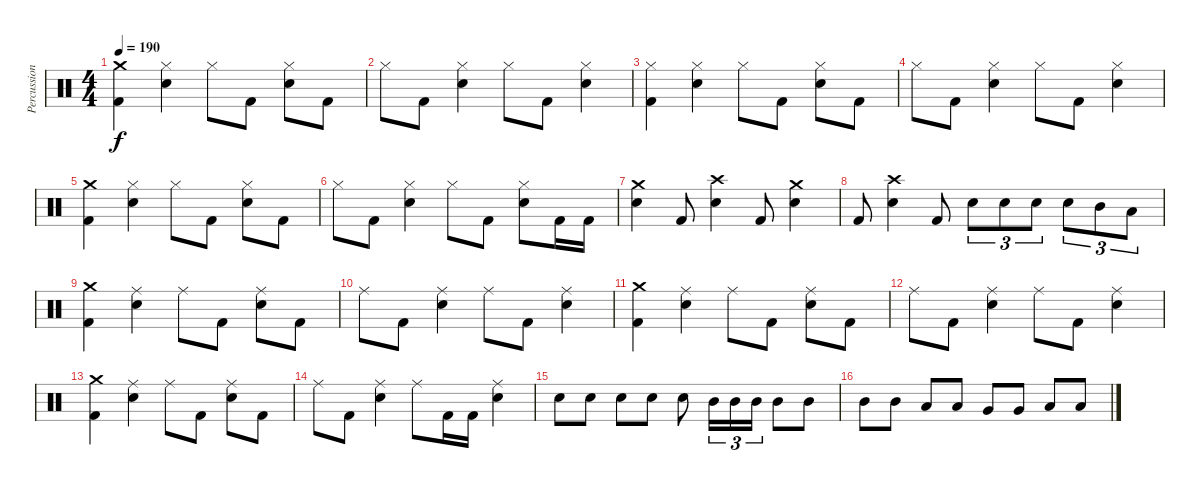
\track ("Percussion" "Percussion") {instrument percussion}
\staff {score}
\articulation defaults
\ts (4 4)
\tempo 190
\clef neutral
\ks c
("Crash medium (hit)" "Kick (hit) 2").4{dy f} ("Hi-Hat (closed)" "Snare (hit) 2").4 "Hi-Hat (closed)".8 "Kick (hit) 2".8 ("Hi-Hat (closed)" "Snare (hit) 2").8 "Kick (hit) 2".8 |
"Hi-Hat (closed)".8 "Kick (hit) 2".8 ("Hi-Hat (closed)" "Snare (hit) 2").4 "Hi-Hat (closed)".8 "Kick (hit) 2".8 ("Hi-Hat (closed)" "Snare (hit) 2").4 |
("Hi-Hat (closed)" "Kick (hit) 2").4 ("Hi-Hat (closed)" "Snare (hit) 2").4 "Hi-Hat (closed)".8 "Kick (hit) 2".8 ("Hi-Hat (closed)" "Snare (hit) 2").8 "Kick (hit) 2".8 |
"Hi-Hat (closed)".8 "Kick (hit) 2".8 ("Hi-Hat (closed)" "Snare (hit) 2").4 "Hi-Hat (closed)".8 "Kick (hit) 2".8 ("Hi-Hat (closed)" "Snare (hit) 2").4 |
("Crash medium (hit)" "Kick (hit) 2").4 ("Hi-Hat (closed)" "Snare (hit) 2").4 "Hi-Hat (closed)".8 "Kick (hit) 2".8 ("Hi-Hat (closed)" "Snare (hit) 2").8 "Kick (hit) 2".8 |
"Hi-Hat (closed)".8 "Kick (hit) 2".8 ("Hi-Hat (closed)" "Snare (hit) 2").4 "Hi-Hat (closed)".8 "Kick (hit) 2".8 ("Hi-Hat (closed)" "Snare (hit) 2").8 "Kick (hit) 2".16 "Kick (hit) 2".16 |
("Crash medium (hit)" "Snare (hit) 2").4 "Kick (hit) 2".8 ("Crash high (hit)" "Snare (hit) 2").4 "Kick (hit) 2".8 ("Crash medium (hit)" "Snare (hit) 2").4 |
"Kick (hit) 2".8 ("Crash high (hit)" "Snare (hit) 2").4 "Kick (hit) 2".8 "Snare (hit) 2".8{tu (3 2)} "Snare (hit) 2".8{tu (3 2)} "Snare (hit) 2".8{tu (3 2)} "Snare (hit) 2".8{tu (3 2)} "Mid Tom (hit)".8{tu (3 2)} "Low Tom (hit)".8{tu (3 2)} |
("Crash medium (hit)" "Kick (hit) 2").4 ("Ride (middle)" "Snare (hit) 2").4 "Ride (middle)".8 "Kick (hit) 2".8 ("Ride (middle)" "Snare (hit) 2").8 "Kick (hit) 2".8 |
"Ride (middle)".8 "Kick (hit) 2".8 ("Ride (middle)" "Snare (hit) 2").4 "Ride (middle)".8 "Kick (hit) 2".8 ("Ride (middle)" "Snare (hit) 2").4 |
("Crash medium (hit)" "Kick (hit) 2").4 ("Ride (middle)" "Snare (hit) 2").4 "Ride (middle)".8 "Kick (hit) 2".8 ("Ride (middle)" "Snare (hit) 2").8 "Kick (hit) 2".8 |
"Ride (middle)".8 "Kick (hit) 2".8 ("Ride (middle)" "Snare (hit) 2").4 "Ride (middle)".8 "Kick (hit) 2".8 ("Ride (middle)" "Snare (hit) 2").4 |
("Crash medium (hit)" "Kick (hit) 2").4 ("Ride (middle)" "Snare (hit) 2").4 "Ride (middle)".8 "Kick (hit) 2".8 ("Ride (middle)" "Snare (hit) 2").8 "Kick (hit) 2".8 |
"Ride (middle)".8 "Kick (hit) 2".8 ("Ride (middle)" "Snare (hit) 2").4 "Ride (middle)".8 "Kick (hit) 2".16 "Kick (hit) 2".16 ("Ride (middle)" "Snare (hit) 2").4 |
"Snare (hit) 2".8 "Snare (hit) 2".8 "Snare (hit) 2".8 "Snare (hit) 2".8 "Snare (hit) 2".8 "Mid Tom (hit)".16{tu (3 2)} "Mid Tom (hit)".16{tu (3 2)} "Mid Tom (hit)".16{tu (3 2)} "Mid Tom (hit)".8 "Mid Tom (hit)".8 |
"Mid Tom (hit)".8 "Mid Tom (hit)".8 "Low Tom (hit)".8 "Low Tom (hit)".8 "Very Low Tom (hit)".8 "Very Low Tom (hit)".8 "Low Floor Tom (hit)".8 "Low Floor Tom (hit)".8
